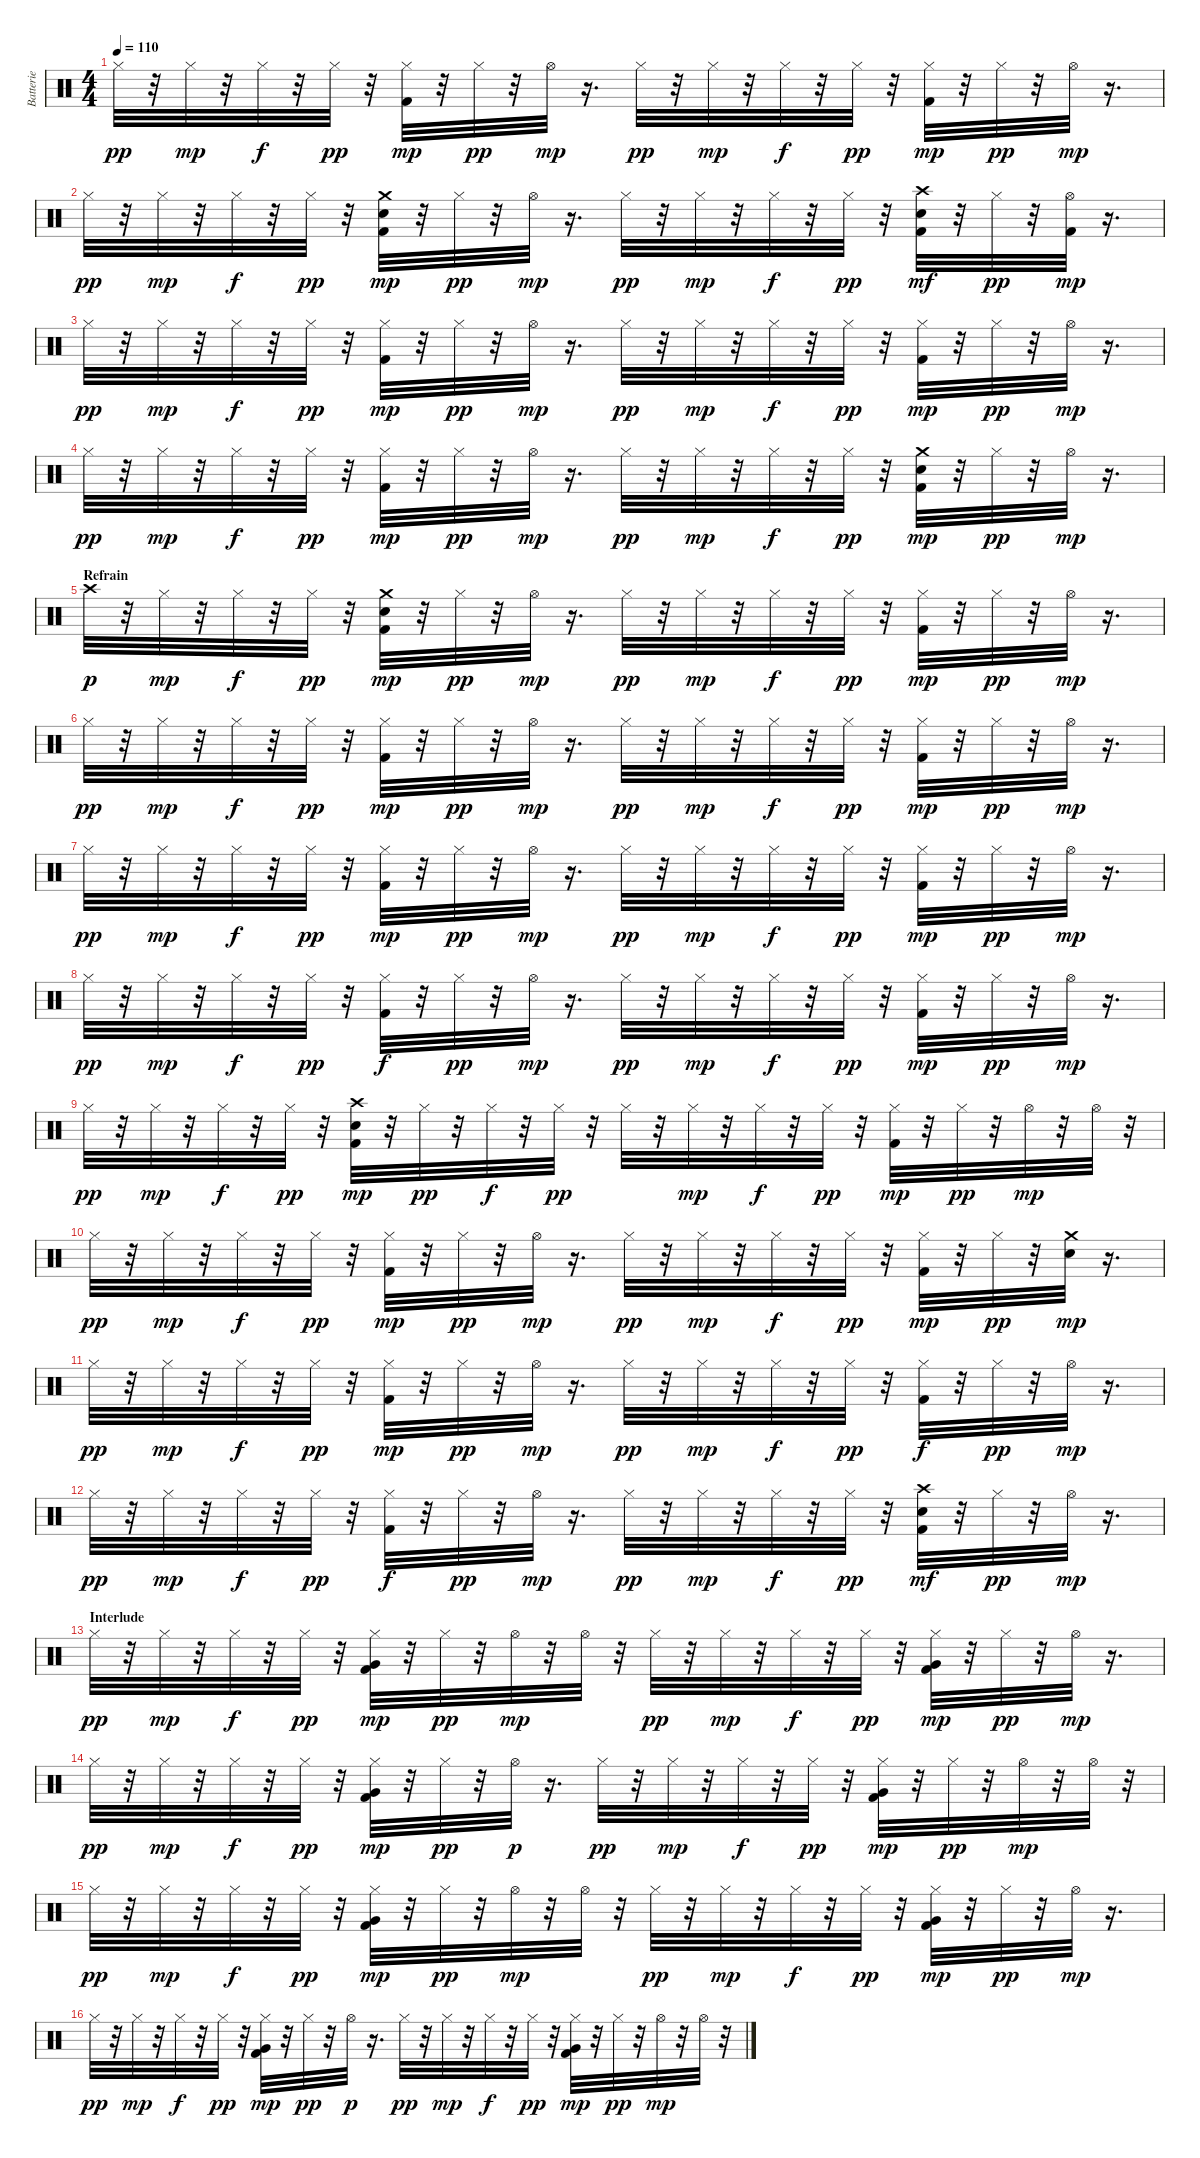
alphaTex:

\track ("Batterie" "Batterie") {instrument percussion}
\staff {score}
\articulation defaults
\ts (4 4)
\tempo 110
\clef neutral
\ks c "Hi-Hat (closed)".32{dy pp}
r.32 "Hi-Hat (closed)".32{dy mp} r.32 "Hi-Hat (closed)".32{dy f} r.32 "Hi-Hat (closed)".32{dy pp} r.32 ("Kick (hit) 2" "Hi-Hat (closed)").32{dy mp} r.32 "Hi-Hat (closed)".32{dy pp} r.32 "Hi-Hat (open)".32{dy mp} r.16{d} "Hi-Hat (closed)".32{dy pp} r.32 "Hi-Hat (closed)".32{dy mp} r.32 "Hi-Hat (closed)".32{dy f} r.32 "Hi-Hat (closed)".32{dy pp} r.32 ("Kick (hit) 2" "Hi-Hat (closed)").32{dy mp} r.32 "Hi-Hat (closed)".32{dy pp} r.32 "Hi-Hat (open)".32{dy mp} r.16{d} |
"Hi-Hat (closed)".32{dy pp} r.32 "Hi-Hat (closed)".32{dy mp} r.32 "Hi-Hat (closed)".32{dy f} r.32 "Hi-Hat (closed)".32{dy pp} r.32 ("Kick (hit) 2" "Electric Snare (hit)" "Crash medium (hit)").32{dy mp} r.32 "Hi-Hat (closed)".32{dy pp} r.32 "Hi-Hat (open)".32{dy mp} r.16{d} "Hi-Hat (closed)".32{dy pp} r.32 "Hi-Hat (closed)".32{dy mp} r.32 "Hi-Hat (closed)".32{dy f} r.32 "Hi-Hat (closed)".32{dy pp} r.32 ("Kick (hit) 2" "Electric Snare (hit)" "Crash high (hit)").32{dy mf} r.32 "Hi-Hat (closed)".32{dy pp} r.32 ("Kick (hit) 2" "Hi-Hat (open)").32{dy mp} r.16{d} |
"Hi-Hat (closed)".32{dy pp} r.32 "Hi-Hat (closed)".32{dy mp} r.32 "Hi-Hat (closed)".32{dy f} r.32 "Hi-Hat (closed)".32{dy pp} r.32 ("Kick (hit) 2" "Hi-Hat (closed)").32{dy mp} r.32 "Hi-Hat (closed)".32{dy pp} r.32 "Hi-Hat (open)".32{dy mp} r.16{d} "Hi-Hat (closed)".32{dy pp} r.32 "Hi-Hat (closed)".32{dy mp} r.32 "Hi-Hat (closed)".32{dy f} r.32 "Hi-Hat (closed)".32{dy pp} r.32 ("Kick (hit) 2" "Hi-Hat (closed)").32{dy mp} r.32 "Hi-Hat (closed)".32{dy pp} r.32 "Hi-Hat (open)".32{dy mp} r.16{d} |
"Hi-Hat (closed)".32{dy pp} r.32 "Hi-Hat (closed)".32{dy mp} r.32 "Hi-Hat (closed)".32{dy f} r.32 "Hi-Hat (closed)".32{dy pp} r.32 ("Kick (hit) 2" "Hi-Hat (closed)").32{dy mp} r.32 "Hi-Hat (closed)".32{dy pp} r.32 "Hi-Hat (open)".32{dy mp} r.16{d} "Hi-Hat (closed)".32{dy pp} r.32 "Hi-Hat (closed)".32{dy mp} r.32 "Hi-Hat (closed)".32{dy f} r.32 "Hi-Hat (closed)".32{dy pp} r.32 ("Kick (hit) 2" "Electric Snare (hit)" "Crash medium (hit)").32{dy mp} r.32 "Hi-Hat (closed)".32{dy pp} r.32 "Hi-Hat (open)".32{dy mp} r.16{d} |
\section ("" "Refrain")
"Crash high (hit)".32{dy p} r.32 "Hi-Hat (closed)".32{dy mp} r.32 "Hi-Hat (closed)".32{dy f} r.32 "Hi-Hat (closed)".32{dy pp} r.32 ("Kick (hit) 2" "Electric Snare (hit)" "Crash medium (hit)").32{dy mp} r.32 "Hi-Hat (closed)".32{dy pp} r.32 "Hi-Hat (open)".32{dy mp} r.16{d} "Hi-Hat (closed)".32{dy pp} r.32 "Hi-Hat (closed)".32{dy mp} r.32 "Hi-Hat (closed)".32{dy f} r.32 "Hi-Hat (closed)".32{dy pp} r.32 ("Kick (hit) 2" "Hi-Hat (closed)").32{dy mp} r.32 "Hi-Hat (closed)".32{dy pp} r.32 "Hi-Hat (open)".32{dy mp} r.16{d} |
"Hi-Hat (closed)".32{dy pp} r.32 "Hi-Hat (closed)".32{dy mp} r.32 "Hi-Hat (closed)".32{dy f} r.32 "Hi-Hat (closed)".32{dy pp} r.32 ("Kick (hit) 2" "Hi-Hat (closed)").32{dy mp} r.32 "Hi-Hat (closed)".32{dy pp} r.32 "Hi-Hat (open)".32{dy mp} r.16{d} "Hi-Hat (closed)".32{dy pp} r.32 "Hi-Hat (closed)".32{dy mp} r.32 "Hi-Hat (closed)".32{dy f} r.32 "Hi-Hat (closed)".32{dy pp} r.32 ("Kick (hit) 2" "Hi-Hat (closed)").32{dy mp} r.32 "Hi-Hat (closed)".32{dy pp} r.32 "Hi-Hat (open)".32{dy mp} r.16{d} |
"Hi-Hat (closed)".32{dy pp} r.32 "Hi-Hat (closed)".32{dy mp} r.32 "Hi-Hat (closed)".32{dy f} r.32 "Hi-Hat (closed)".32{dy pp} r.32 ("Kick (hit) 2" "Hi-Hat (closed)").32{dy mp} r.32 "Hi-Hat (closed)".32{dy pp} r.32 "Hi-Hat (open)".32{dy mp} r.16{d} "Hi-Hat (closed)".32{dy pp} r.32 "Hi-Hat (closed)".32{dy mp} r.32 "Hi-Hat (closed)".32{dy f} r.32 "Hi-Hat (closed)".32{dy pp} r.32 ("Kick (hit) 2" "Hi-Hat (closed)").32{dy mp} r.32 "Hi-Hat (closed)".32{dy pp} r.32 "Hi-Hat (open)".32{dy mp} r.16{d} |
"Hi-Hat (closed)".32{dy pp} r.32 "Hi-Hat (closed)".32{dy mp} r.32 "Hi-Hat (closed)".32{dy f} r.32 "Hi-Hat (closed)".32{dy pp} r.32 ("Kick (hit) 2" "Hi-Hat (closed)").32{dy f} r.32 "Hi-Hat (closed)".32{dy pp} r.32 "Hi-Hat (open)".32{dy mp} r.16{d} "Hi-Hat (closed)".32{dy pp} r.32 "Hi-Hat (closed)".32{dy mp} r.32 "Hi-Hat (closed)".32{dy f} r.32 "Hi-Hat (closed)".32{dy pp} r.32 ("Kick (hit) 2" "Hi-Hat (closed)").32{dy mp} r.32 "Hi-Hat (closed)".32{dy pp} r.32 "Hi-Hat (open)".32{dy mp} r.16{d} |
"Hi-Hat (closed)".32{dy pp} r.32 "Hi-Hat (closed)".32{dy mp} r.32 "Hi-Hat (closed)".32{dy f} r.32 "Hi-Hat (closed)".32{dy pp} r.32 ("Kick (hit) 2" "Electric Snare (hit)" "Crash high (hit)").32{dy mp} r.32 "Hi-Hat (closed)".32{dy pp} r.32 "Hi-Hat (closed)".32{dy f} r.32 "Hi-Hat (closed)".32{dy pp} r.32 "Hi-Hat (closed)".32 r.32 "Hi-Hat (closed)".32{dy mp} r.32 "Hi-Hat (closed)".32{dy f} r.32 "Hi-Hat (closed)".32{dy pp} r.32 ("Kick (hit) 2" "Hi-Hat (closed)").32{dy mp} r.32 "Hi-Hat (closed)".32{dy pp} r.32 "Hi-Hat (open)".32{dy mp} r.32 "Hi-Hat (open)".32 r.32 |
"Hi-Hat (closed)".32{dy pp} r.32 "Hi-Hat (closed)".32{dy mp} r.32 "Hi-Hat (closed)".32{dy f} r.32 "Hi-Hat (closed)".32{dy pp} r.32 ("Kick (hit) 2" "Hi-Hat (closed)").32{dy mp} r.32 "Hi-Hat (closed)".32{dy pp} r.32 "Hi-Hat (open)".32{dy mp} r.16{d} "Hi-Hat (closed)".32{dy pp} r.32 "Hi-Hat (closed)".32{dy mp} r.32 "Hi-Hat (closed)".32{dy f} r.32 "Hi-Hat (closed)".32{dy pp} r.32 ("Kick (hit) 2" "Hi-Hat (closed)").32{dy mp} r.32 "Hi-Hat (closed)".32{dy pp} r.32 ("Electric Snare (hit)" "Crash medium (hit)").32{dy mp} r.16{d} |
"Hi-Hat (closed)".32{dy pp} r.32 "Hi-Hat (closed)".32{dy mp} r.32 "Hi-Hat (closed)".32{dy f} r.32 "Hi-Hat (closed)".32{dy pp} r.32 ("Kick (hit) 2" "Hi-Hat (closed)").32{dy mp} r.32 "Hi-Hat (closed)".32{dy pp} r.32 "Hi-Hat (open)".32{dy mp} r.16{d} "Hi-Hat (closed)".32{dy pp} r.32 "Hi-Hat (closed)".32{dy mp} r.32 "Hi-Hat (closed)".32{dy f} r.32 "Hi-Hat (closed)".32{dy pp} r.32 ("Kick (hit) 2" "Hi-Hat (closed)").32{dy f} r.32 "Hi-Hat (closed)".32{dy pp} r.32 "Hi-Hat (open)".32{dy mp} r.16{d} |
"Hi-Hat (closed)".32{dy pp} r.32 "Hi-Hat (closed)".32{dy mp} r.32 "Hi-Hat (closed)".32{dy f} r.32 "Hi-Hat (closed)".32{dy pp} r.32 ("Kick (hit) 2" "Hi-Hat (closed)").32{dy f} r.32 "Hi-Hat (closed)".32{dy pp} r.32 "Hi-Hat (open)".32{dy mp} r.16{d} "Hi-Hat (closed)".32{dy pp} r.32 "Hi-Hat (closed)".32{dy mp} r.32 "Hi-Hat (closed)".32{dy f} r.32 "Hi-Hat (closed)".32{dy pp} r.32 ("Kick (hit) 2" "Electric Snare (hit)" "Crash high (hit)").32{dy mf} r.32 "Hi-Hat (closed)".32{dy pp} r.32 "Hi-Hat (open)".32{dy mp} r.16{d} |
\section ("" "Interlude")
"Hi-Hat (closed)".32{dy pp} r.32 "Hi-Hat (closed)".32{dy mp} r.32 "Hi-Hat (closed)".32{dy f} r.32 "Hi-Hat (closed)".32{dy pp} r.32 ("Kick (hit) 2" "Hi-Hat (closed)" "Very Low Tom (hit)").32{dy mp} r.32 "Hi-Hat (closed)".32{dy pp} r.32 "Hi-Hat (open)".32{dy mp} r.32 "Hi-Hat (open)".32 r.32 "Hi-Hat (closed)".32{dy pp} r.32 "Hi-Hat (closed)".32{dy mp} r.32 "Hi-Hat (closed)".32{dy f} r.32 "Hi-Hat (closed)".32{dy pp} r.32 ("Kick (hit) 2" "Hi-Hat (closed)" "Very Low Tom (hit)").32{dy mp} r.32 "Hi-Hat (closed)".32{dy pp} r.32 "Hi-Hat (open)".32{dy mp} r.16{d} |
"Hi-Hat (closed)".32{dy pp} r.32 "Hi-Hat (closed)".32{dy mp} r.32 "Hi-Hat (closed)".32{dy f} r.32 "Hi-Hat (closed)".32{dy pp} r.32 ("Kick (hit) 2" "Hi-Hat (closed)" "Very Low Tom (hit)").32{dy mp} r.32 "Hi-Hat (closed)".32{dy pp} r.32 "Hi-Hat (open)".32{dy p} r.16{d} "Hi-Hat (closed)".32{dy pp} r.32 "Hi-Hat (closed)".32{dy mp} r.32 "Hi-Hat (closed)".32{dy f} r.32 "Hi-Hat (closed)".32{dy pp} r.32 ("Kick (hit) 2" "Hi-Hat (closed)" "Very Low Tom (hit)").32{dy mp} r.32 "Hi-Hat (closed)".32{dy pp} r.32 "Hi-Hat (open)".32{dy mp} r.32 "Hi-Hat (open)".32 r.32 |
"Hi-Hat (closed)".32{dy pp} r.32 "Hi-Hat (closed)".32{dy mp} r.32 "Hi-Hat (closed)".32{dy f} r.32 "Hi-Hat (closed)".32{dy pp} r.32 ("Kick (hit) 2" "Hi-Hat (closed)" "Very Low Tom (hit)").32{dy mp} r.32 "Hi-Hat (closed)".32{dy pp} r.32 "Hi-Hat (open)".32{dy mp} r.32 "Hi-Hat (open)".32 r.32 "Hi-Hat (closed)".32{dy pp} r.32 "Hi-Hat (closed)".32{dy mp} r.32 "Hi-Hat (closed)".32{dy f} r.32 "Hi-Hat (closed)".32{dy pp} r.32 ("Kick (hit) 2" "Hi-Hat (closed)" "Very Low Tom (hit)").32{dy mp} r.32 "Hi-Hat (closed)".32{dy pp} r.32 "Hi-Hat (open)".32{dy mp} r.16{d} |
"Hi-Hat (closed)".32{dy pp} r.32 "Hi-Hat (closed)".32{dy mp} r.32 "Hi-Hat (closed)".32{dy f} r.32 "Hi-Hat (closed)".32{dy pp} r.32 ("Kick (hit) 2" "Hi-Hat (closed)" "Very Low Tom (hit)").32{dy mp} r.32 "Hi-Hat (closed)".32{dy pp} r.32 "Hi-Hat (open)".32{dy p} r.16{d} "Hi-Hat (closed)".32{dy pp} r.32 "Hi-Hat (closed)".32{dy mp} r.32 "Hi-Hat (closed)".32{dy f} r.32 "Hi-Hat (closed)".32{dy pp} r.32 ("Kick (hit) 2" "Hi-Hat (closed)" "Very Low Tom (hit)").32{dy mp} r.32 "Hi-Hat (closed)".32{dy pp} r.32 "Hi-Hat (open)".32{dy mp} r.32 "Hi-Hat (open)".32 r.32
